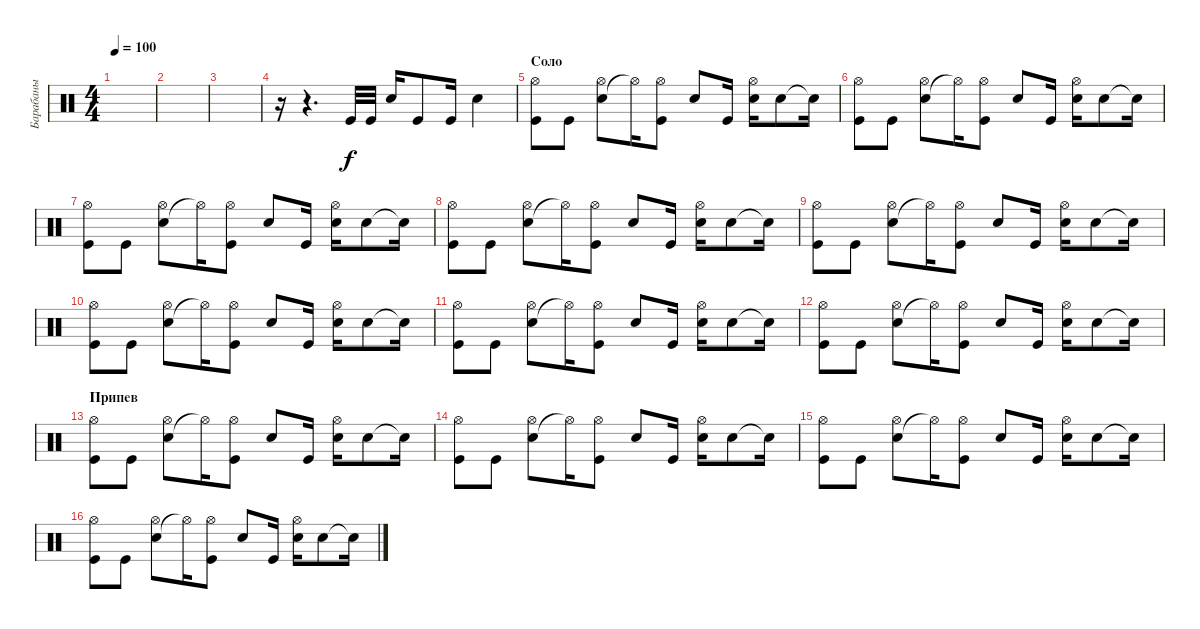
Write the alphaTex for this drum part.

\track ("Барабаны" "Барабаны") {instrument percussion}
\staff {score}
\articulation defaults
\ts (4 4)
\tempo 100
\clef neutral
\ks c
|
|
|
r.16 r.4{d} "Kick (hit)".32 "Kick (hit)".32 "Snare (hit) 2".16 "Kick (hit)".8 "Kick (hit)".16 "Snare (hit) 2".4 |
\section ("" "Соло")
("Kick (hit)" "Hi-Hat (open)").8 "Kick (hit)".8 ("Snare (hit) 2" "Hi-Hat (open)").8 "Hi-Hat (open)"{t}.16 ("Kick (hit)" "Hi-Hat (open)").8 "Snare (hit) 2".8 "Kick (hit)".16 ("Snare (hit) 2" "Hi-Hat (open)").16 "Snare (hit) 2".8 "Snare (hit) 2"{t}.16 |
("Kick (hit)" "Hi-Hat (open)").8 "Kick (hit)".8 ("Snare (hit) 2" "Hi-Hat (open)").8 "Hi-Hat (open)"{t}.16 ("Kick (hit)" "Hi-Hat (open)").8 "Snare (hit) 2".8 "Kick (hit)".16 ("Snare (hit) 2" "Hi-Hat (open)").16 "Snare (hit) 2".8 "Snare (hit) 2"{t}.16 |
("Kick (hit)" "Hi-Hat (open)").8 "Kick (hit)".8 ("Snare (hit) 2" "Hi-Hat (open)").8 "Hi-Hat (open)"{t}.16 ("Kick (hit)" "Hi-Hat (open)").8 "Snare (hit) 2".8 "Kick (hit)".16 ("Snare (hit) 2" "Hi-Hat (open)").16 "Snare (hit) 2".8 "Snare (hit) 2"{t}.16 |
("Kick (hit)" "Hi-Hat (open)").8 "Kick (hit)".8 ("Snare (hit) 2" "Hi-Hat (open)").8 "Hi-Hat (open)"{t}.16 ("Kick (hit)" "Hi-Hat (open)").8 "Snare (hit) 2".8 "Kick (hit)".16 ("Snare (hit) 2" "Hi-Hat (open)").16 "Snare (hit) 2".8 "Snare (hit) 2"{t}.16 |
("Kick (hit)" "Hi-Hat (open)").8 "Kick (hit)".8 ("Snare (hit) 2" "Hi-Hat (open)").8 "Hi-Hat (open)"{t}.16 ("Kick (hit)" "Hi-Hat (open)").8 "Snare (hit) 2".8 "Kick (hit)".16 ("Snare (hit) 2" "Hi-Hat (open)").16 "Snare (hit) 2".8 "Snare (hit) 2"{t}.16 |
("Kick (hit)" "Hi-Hat (open)").8 "Kick (hit)".8 ("Snare (hit) 2" "Hi-Hat (open)").8 "Hi-Hat (open)"{t}.16 ("Kick (hit)" "Hi-Hat (open)").8 "Snare (hit) 2".8 "Kick (hit)".16 ("Snare (hit) 2" "Hi-Hat (open)").16 "Snare (hit) 2".8 "Snare (hit) 2"{t}.16 |
("Kick (hit)" "Hi-Hat (open)").8 "Kick (hit)".8 ("Snare (hit) 2" "Hi-Hat (open)").8 "Hi-Hat (open)"{t}.16 ("Kick (hit)" "Hi-Hat (open)").8 "Snare (hit) 2".8 "Kick (hit)".16 ("Snare (hit) 2" "Hi-Hat (open)").16 "Snare (hit) 2".8 "Snare (hit) 2"{t}.16 |
("Kick (hit)" "Hi-Hat (open)").8 "Kick (hit)".8 ("Snare (hit) 2" "Hi-Hat (open)").8 "Hi-Hat (open)"{t}.16 ("Kick (hit)" "Hi-Hat (open)").8 "Snare (hit) 2".8 "Kick (hit)".16 ("Snare (hit) 2" "Hi-Hat (open)").16 "Snare (hit) 2".8 "Snare (hit) 2"{t}.16 |
\section ("" "Припев")
("Kick (hit)" "Hi-Hat (open)").8 "Kick (hit)".8 ("Snare (hit) 2" "Hi-Hat (open)").8 "Hi-Hat (open)"{t}.16 ("Kick (hit)" "Hi-Hat (open)").8 "Snare (hit) 2".8 "Kick (hit)".16 ("Snare (hit) 2" "Hi-Hat (open)").16 "Snare (hit) 2".8 "Snare (hit) 2"{t}.16 |
("Kick (hit)" "Hi-Hat (open)").8 "Kick (hit)".8 ("Snare (hit) 2" "Hi-Hat (open)").8 "Hi-Hat (open)"{t}.16 ("Kick (hit)" "Hi-Hat (open)").8 "Snare (hit) 2".8 "Kick (hit)".16 ("Snare (hit) 2" "Hi-Hat (open)").16 "Snare (hit) 2".8 "Snare (hit) 2"{t}.16 |
("Kick (hit)" "Hi-Hat (open)").8 "Kick (hit)".8 ("Snare (hit) 2" "Hi-Hat (open)").8 "Hi-Hat (open)"{t}.16 ("Kick (hit)" "Hi-Hat (open)").8 "Snare (hit) 2".8 "Kick (hit)".16 ("Snare (hit) 2" "Hi-Hat (open)").16 "Snare (hit) 2".8 "Snare (hit) 2"{t}.16 |
("Kick (hit)" "Hi-Hat (open)").8 "Kick (hit)".8 ("Snare (hit) 2" "Hi-Hat (open)").8 "Hi-Hat (open)"{t}.16 ("Kick (hit)" "Hi-Hat (open)").8 "Snare (hit) 2".8 "Kick (hit)".16 ("Snare (hit) 2" "Hi-Hat (open)").16 "Snare (hit) 2".8 "Snare (hit) 2"{t}.16
